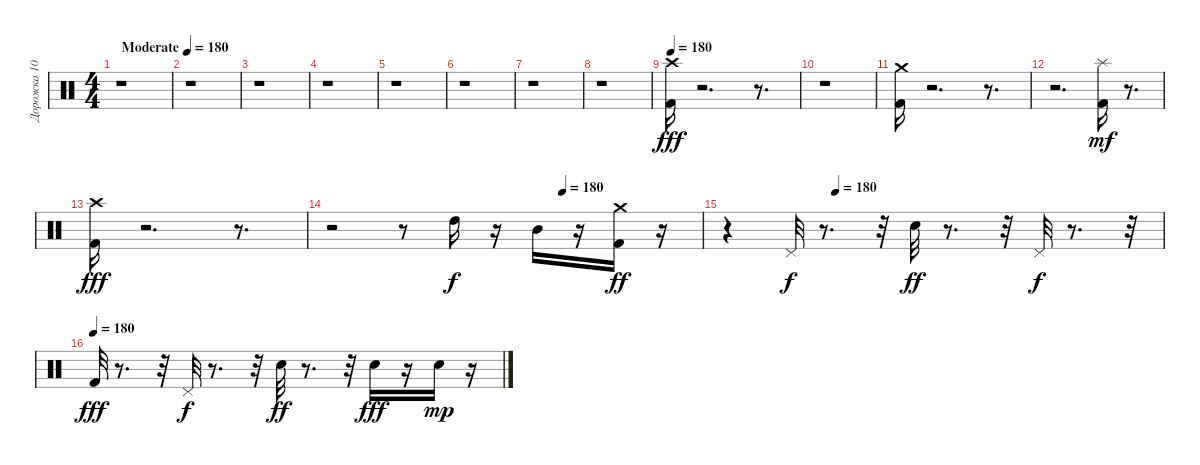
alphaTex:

\track ("Дорожка 10" "Дорожка 10") {instrument percussion}
\staff {score}
\articulation defaults
\ts (4 4)
\tempo (180 "Moderate")
\clef neutral
\ks c
r.1{dy fff} |
r.1 |
r.1 |
r.1 |
r.1 |
r.1 |
r.1 |
r.1 |
\tempo 180
("Kick (hit) 2" "Crash high (hit)").16 r.2{d} r.8{d} |
r.1 |
("Kick (hit) 2" "Crash medium (hit)").16 r.2{d} r.8{d} |
r.2{d} ("Kick (hit) 2" "Splash (hit)").16{dy mf} r.8{d} |
("Kick (hit) 2" "Crash high (hit)").16{dy fff} r.2{d} r.8{d} |
\tempo (180 0.625)
r.2 r.8 "High Tom (hit)".16{dy f} r.16 "Mid Tom (hit)".16 r.16 ("Kick (hit) 2" "Crash medium (hit)").16{dy ff} r.16 |
\tempo (180 0.25)
r.4 "Pedal Hi-Hat (hit)".32{dy f} r.8{d} r.32 "Snare (hit) 2".32{dy ff} r.8{d} r.32 "Pedal Hi-Hat (hit)".32{dy f} r.8{d} r.32 |
\tempo (180)
"Kick (hit) 2".32{dy fff} r.8{d} r.32 "Pedal Hi-Hat (hit)".32{dy f} r.8{d} r.32 "Snare (hit) 2".32{dy ff} r.8{d} r.32 "Snare (hit) 2".16{dy fff} r.16 "Snare (hit) 2".16{dy mp} r.16
